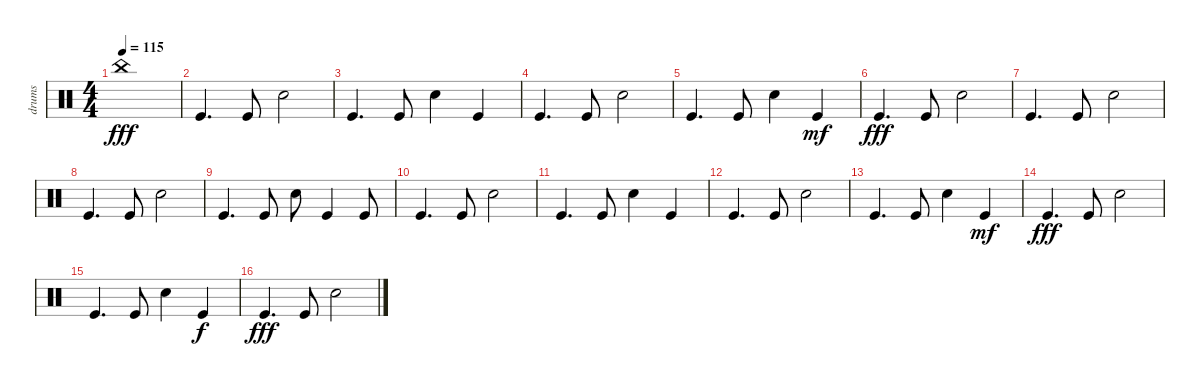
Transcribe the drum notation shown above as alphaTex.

\track ("drums" "drums") {instrument percussion}
\staff {score}
\articulation defaults
\ts (4 4)
\tempo 115
\clef neutral
\ks c "China (hit)".1{dy fff}
|
"Kick (hit)".4{d} "Kick (hit)".8 "Electric Snare (hit)".2 |
"Kick (hit)".4{d} "Kick (hit)".8 "Electric Snare (hit)".4 "Kick (hit)".4 |
"Kick (hit)".4{d} "Kick (hit)".8 "Electric Snare (hit)".2 |
"Kick (hit)".4{d} "Kick (hit)".8 "Electric Snare (hit)".4 "Kick (hit)".4{dy mf} |
"Kick (hit)".4{d dy fff} "Kick (hit)".8 "Electric Snare (hit)".2 |
"Kick (hit)".4{d} "Kick (hit)".8 "Electric Snare (hit)".2 |
"Kick (hit)".4{d} "Kick (hit)".8 "Electric Snare (hit)".2 |
"Kick (hit)".4{d} "Kick (hit)".8 "Electric Snare (hit)".8 "Kick (hit)".4 "Kick (hit)".8 |
"Kick (hit)".4{d} "Kick (hit)".8 "Electric Snare (hit)".2 |
"Kick (hit)".4{d} "Kick (hit)".8 "Electric Snare (hit)".4 "Kick (hit)".4 |
"Kick (hit)".4{d} "Kick (hit)".8 "Electric Snare (hit)".2 |
"Kick (hit)".4{d} "Kick (hit)".8 "Electric Snare (hit)".4 "Kick (hit)".4{dy mf} |
"Kick (hit)".4{d dy fff} "Kick (hit)".8 "Electric Snare (hit)".2 |
"Kick (hit)".4{d} "Kick (hit)".8 "Electric Snare (hit)".4 "Kick (hit)".4{dy f} |
"Kick (hit)".4{d dy fff} "Kick (hit)".8 "Electric Snare (hit)".2
